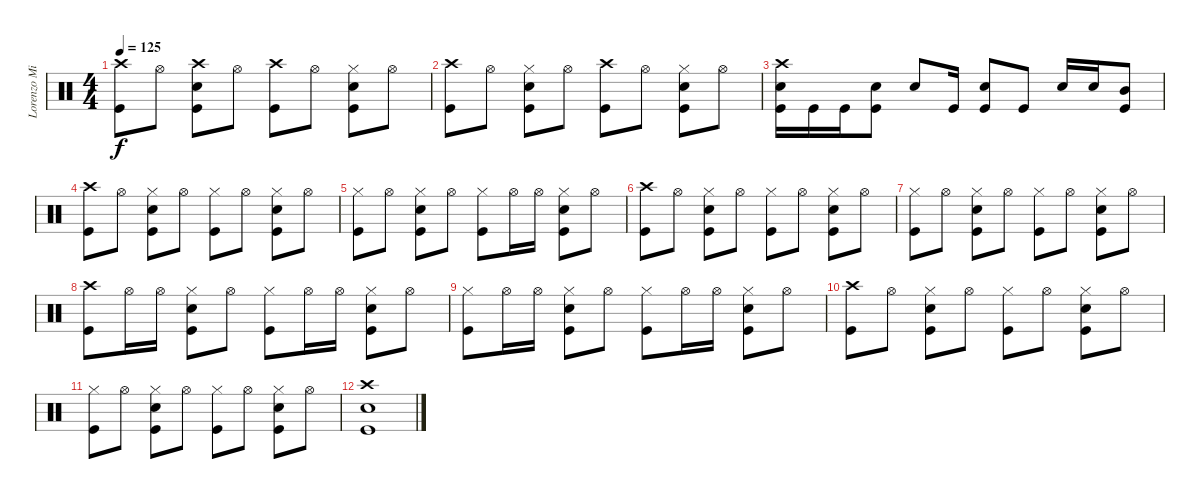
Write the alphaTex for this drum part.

\track ("Lorenzo Milani - drums" "Lorenzo Mi") {instrument percussion}
\staff {score}
\articulation defaults
\ts (4 4)
\tempo 125
\clef neutral
\ks c
("Crash high (hit)" "Kick (hit)").8{dy f} "Hi-Hat (open)".8 ("Crash high (hit)" "Electric Snare (hit)" "Kick (hit)").8 "Hi-Hat (open)".8 ("Crash high (hit)" "Kick (hit)").8 "Hi-Hat (open)".8 ("Electric Snare (hit)" "Hi-Hat (closed)" "Kick (hit)").8 "Hi-Hat (open)".8 |
("Crash high (hit)" "Kick (hit)").8 "Hi-Hat (open)".8 ("Electric Snare (hit)" "Hi-Hat (closed)" "Kick (hit)").8 "Hi-Hat (open)".8 ("Crash high (hit)" "Kick (hit)").8 "Hi-Hat (open)".8 ("Electric Snare (hit)" "Hi-Hat (closed)" "Kick (hit)").8 "Hi-Hat (open)".8 |
("Crash high (hit)" "Electric Snare (hit)" "Kick (hit)").16 "Kick (hit)".16 "Kick (hit)".16 ("Electric Snare (hit)" "Kick (hit)").8 "Electric Snare (hit)".8 "Kick (hit)".16 ("Electric Snare (hit)" "Kick (hit)").8 "Kick (hit)".8 "Electric Snare (hit)".16 "Electric Snare (hit)".16 ("Mid Tom (hit)" "Kick (hit)").8 |
("Crash high (hit)" "Kick (hit)").8 "Hi-Hat (open)".8 ("Electric Snare (hit)" "Hi-Hat (closed)" "Kick (hit)").8 "Hi-Hat (open)".8 ("Hi-Hat (closed)" "Kick (hit)").8 "Hi-Hat (open)".8 ("Electric Snare (hit)" "Hi-Hat (closed)" "Kick (hit)").8 "Hi-Hat (open)".8 |
("Hi-Hat (closed)" "Kick (hit)").8 "Hi-Hat (open)".8 ("Electric Snare (hit)" "Hi-Hat (closed)" "Kick (hit)").8 "Hi-Hat (open)".8 ("Hi-Hat (closed)" "Kick (hit)").8 "Hi-Hat (open)".16 "Hi-Hat (open)".16 ("Electric Snare (hit)" "Hi-Hat (closed)" "Kick (hit)").8 "Hi-Hat (open)".8 |
("Crash high (hit)" "Kick (hit)").8 "Hi-Hat (open)".8 ("Electric Snare (hit)" "Hi-Hat (closed)" "Kick (hit)").8 "Hi-Hat (open)".8 ("Hi-Hat (closed)" "Kick (hit)").8 "Hi-Hat (open)".8 ("Electric Snare (hit)" "Hi-Hat (closed)" "Kick (hit)").8 "Hi-Hat (open)".8 |
("Hi-Hat (closed)" "Kick (hit)").8 "Hi-Hat (open)".8 ("Electric Snare (hit)" "Hi-Hat (closed)" "Kick (hit)").8 "Hi-Hat (open)".8 ("Hi-Hat (closed)" "Kick (hit)").8 "Hi-Hat (open)".8 ("Electric Snare (hit)" "Hi-Hat (closed)" "Kick (hit)").8 "Hi-Hat (open)".8 |
("Crash high (hit)" "Kick (hit)").8 "Hi-Hat (open)".16 "Hi-Hat (open)".16 ("Electric Snare (hit)" "Hi-Hat (closed)" "Kick (hit)").8 "Hi-Hat (open)".8 ("Hi-Hat (closed)" "Kick (hit)").8 "Hi-Hat (open)".16 "Hi-Hat (open)".16 ("Electric Snare (hit)" "Hi-Hat (closed)" "Kick (hit)").8 "Hi-Hat (open)".8 |
("Hi-Hat (closed)" "Kick (hit)").8 "Hi-Hat (open)".16 "Hi-Hat (open)".16 ("Electric Snare (hit)" "Hi-Hat (closed)" "Kick (hit)").8 "Hi-Hat (open)".8 ("Hi-Hat (closed)" "Kick (hit)").8 "Hi-Hat (open)".16 "Hi-Hat (open)".16 ("Electric Snare (hit)" "Hi-Hat (closed)" "Kick (hit)").8 "Hi-Hat (open)".8 |
("Crash high (hit)" "Kick (hit)").8 "Hi-Hat (open)".8 ("Electric Snare (hit)" "Hi-Hat (closed)" "Kick (hit)").8 "Hi-Hat (open)".8 ("Hi-Hat (closed)" "Kick (hit)").8 "Hi-Hat (open)".8 ("Electric Snare (hit)" "Hi-Hat (closed)" "Kick (hit)").8 "Hi-Hat (open)".8 |
("Hi-Hat (closed)" "Kick (hit)").8 "Hi-Hat (open)".8 ("Electric Snare (hit)" "Hi-Hat (closed)" "Kick (hit)").8 "Hi-Hat (open)".8 ("Hi-Hat (closed)" "Kick (hit)").8 "Hi-Hat (open)".8 ("Electric Snare (hit)" "Hi-Hat (closed)" "Kick (hit)").8 "Hi-Hat (open)".8 |
("Crash high (hit)" "Electric Snare (hit)" "Kick (hit)").1
